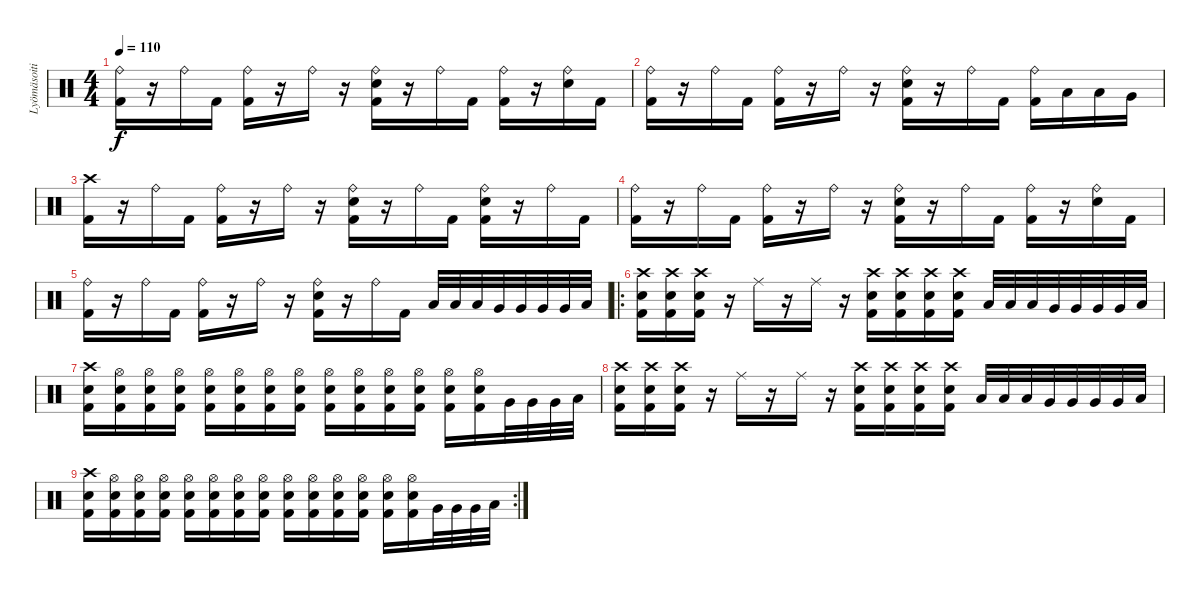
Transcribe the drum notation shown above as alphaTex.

\track ("Lyömäsoitin" "Lyömäsoiti") {instrument percussion}
\staff {score}
\articulation defaults
\ts (4 4)
\tempo 110
\clef neutral
\ks c
("Ride (bell)" "Kick (hit) 2").16{dy f} r.16 "Ride (bell)".16 "Kick (hit) 2".16 ("Ride (bell)" "Kick (hit) 2").16 r.16 "Ride (bell)".16 r.16 ("Ride (bell)" "Electric Snare (hit)" "Kick (hit) 2").16 r.16 "Ride (bell)".16 "Kick (hit) 2".16 ("Ride (bell)" "Kick (hit) 2").16 r.16 ("Ride (bell)" "Electric Snare (hit)").16 "Kick (hit) 2".16 |
("Ride (bell)" "Kick (hit) 2").16 r.16 "Ride (bell)".16 "Kick (hit) 2".16 ("Ride (bell)" "Kick (hit) 2").16 r.16 "Ride (bell)".16 r.16 ("Ride (bell)" "Electric Snare (hit)" "Kick (hit) 2").16 r.16 "Ride (bell)".16 "Kick (hit) 2".16 ("Ride (bell)" "Kick (hit) 2").16 "Low Tom (hit)".16 "Low Tom (hit)".16 "Very Low Tom (hit)".16 |
("Crash high (hit)" "Kick (hit) 2").16 r.16 "Ride (bell)".16 "Kick (hit) 2".16 ("Ride (bell)" "Kick (hit) 2").16 r.16 "Ride (bell)".16 r.16 ("Ride (bell)" "Electric Snare (hit)" "Kick (hit) 2").16 r.16 "Ride (bell)".16 "Kick (hit) 2".16 ("Ride (bell)" "Electric Snare (hit)" "Kick (hit) 2").16 r.16 "Ride (bell)".16 "Kick (hit) 2".16 |
("Ride (bell)" "Kick (hit) 2").16 r.16 "Ride (bell)".16 "Kick (hit) 2".16 ("Ride (bell)" "Kick (hit) 2").16 r.16 "Ride (bell)".16 r.16 ("Ride (bell)" "Electric Snare (hit)" "Kick (hit) 2").16 r.16 "Ride (bell)".16 "Kick (hit) 2".16 ("Ride (bell)" "Kick (hit) 2").16 r.16 ("Ride (bell)" "Electric Snare (hit)").16 "Kick (hit) 2".16 |
("Ride (bell)" "Kick (hit) 2").16 r.16 "Ride (bell)".16 "Kick (hit) 2".16 ("Ride (bell)" "Kick (hit) 2").16 r.16 "Ride (bell)".16 r.16 ("Ride (bell)" "Electric Snare (hit)" "Kick (hit) 2").16 r.16 "Ride (bell)".16 "Kick (hit) 2".16 "Low Tom (hit)".32 "Low Tom (hit)".32 "Low Tom (hit)".32 "Very Low Tom (hit)".32 "Very Low Tom (hit)".32 "Very Low Tom (hit)".32 "Very Low Tom (hit)".32 "Low Floor Tom (hit)".32 |
\ro
("Crash high (hit)" "Electric Snare (hit)" "Kick (hit) 2").16 ("Crash high (hit)" "Electric Snare (hit)" "Kick (hit) 2").16 ("Crash high (hit)" "Electric Snare (hit)" "Kick (hit) 2").16 r.16 "Ride (middle)".16 r.16 "Ride (middle)".16 r.16 ("Crash high (hit)" "Electric Snare (hit)" "Kick (hit) 2").16 ("Crash high (hit)" "Electric Snare (hit)" "Kick (hit) 2").16 ("Crash high (hit)" "Electric Snare (hit)" "Kick (hit) 2").16 ("Crash high (hit)" "Electric Snare (hit)" "Kick (hit) 2").16 "Low Tom (hit)".32 "Low Tom (hit)".32 "Low Tom (hit)".32 "Very Low Tom (hit)".32 "Very Low Tom (hit)".32 "Very Low Tom (hit)".32 "Very Low Tom (hit)".32 "Low Floor Tom (hit)".32 |
("Crash high (hit)" "Electric Snare (hit)" "Kick (hit) 2").16 ("Hi-Hat (open)" "Electric Snare (hit)" "Kick (hit) 2").16 ("Hi-Hat (open)" "Electric Snare (hit)" "Kick (hit) 2").16 ("Hi-Hat (open)" "Electric Snare (hit)" "Kick (hit) 2").16 ("Hi-Hat (open)" "Electric Snare (hit)" "Kick (hit) 2").16 ("Hi-Hat (open)" "Electric Snare (hit)" "Kick (hit) 2").16 ("Hi-Hat (open)" "Electric Snare (hit)" "Kick (hit) 2").16 ("Hi-Hat (open)" "Electric Snare (hit)" "Kick (hit) 2").16 ("Hi-Hat (open)" "Electric Snare (hit)" "Kick (hit) 2").16 ("Hi-Hat (open)" "Electric Snare (hit)" "Kick (hit) 2").16 ("Hi-Hat (open)" "Electric Snare (hit)" "Kick (hit) 2").16 ("Hi-Hat (open)" "Electric Snare (hit)" "Kick (hit) 2").16 ("Hi-Hat (open)" "Electric Snare (hit)" "Kick (hit) 2").16 ("Hi-Hat (open)" "Electric Snare (hit)" "Kick (hit) 2").16 "Very Low Tom (hit)".32 "Very Low Tom (hit)".32 "Very Low Tom (hit)".32 "Low Floor Tom (hit)".32 |
("Crash high (hit)" "Electric Snare (hit)" "Kick (hit) 2").16 ("Crash high (hit)" "Electric Snare (hit)" "Kick (hit) 2").16 ("Crash high (hit)" "Electric Snare (hit)" "Kick (hit) 2").16 r.16 "Ride (middle)".16 r.16 "Ride (middle)".16 r.16 ("Crash high (hit)" "Electric Snare (hit)" "Kick (hit) 2").16 ("Crash high (hit)" "Electric Snare (hit)" "Kick (hit) 2").16 ("Crash high (hit)" "Electric Snare (hit)" "Kick (hit) 2").16 ("Crash high (hit)" "Electric Snare (hit)" "Kick (hit) 2").16 "Low Tom (hit)".32 "Low Tom (hit)".32 "Low Tom (hit)".32 "Very Low Tom (hit)".32 "Very Low Tom (hit)".32 "Very Low Tom (hit)".32 "Very Low Tom (hit)".32 "Low Floor Tom (hit)".32 |
\rc 2
("Crash high (hit)" "Electric Snare (hit)" "Kick (hit) 2").16 ("Hi-Hat (open)" "Electric Snare (hit)" "Kick (hit) 2").16 ("Hi-Hat (open)" "Electric Snare (hit)" "Kick (hit) 2").16 ("Hi-Hat (open)" "Electric Snare (hit)" "Kick (hit) 2").16 ("Hi-Hat (open)" "Electric Snare (hit)" "Kick (hit) 2").16 ("Hi-Hat (open)" "Electric Snare (hit)" "Kick (hit) 2").16 ("Hi-Hat (open)" "Electric Snare (hit)" "Kick (hit) 2").16 ("Hi-Hat (open)" "Electric Snare (hit)" "Kick (hit) 2").16 ("Hi-Hat (open)" "Electric Snare (hit)" "Kick (hit) 2").16 ("Hi-Hat (open)" "Electric Snare (hit)" "Kick (hit) 2").16 ("Hi-Hat (open)" "Electric Snare (hit)" "Kick (hit) 2").16 ("Hi-Hat (open)" "Electric Snare (hit)" "Kick (hit) 2").16 ("Hi-Hat (open)" "Electric Snare (hit)" "Kick (hit) 2").16 ("Hi-Hat (open)" "Electric Snare (hit)" "Kick (hit) 2").16 "Very Low Tom (hit)".32 "Very Low Tom (hit)".32 "Very Low Tom (hit)".32 "Low Floor Tom (hit)".32
